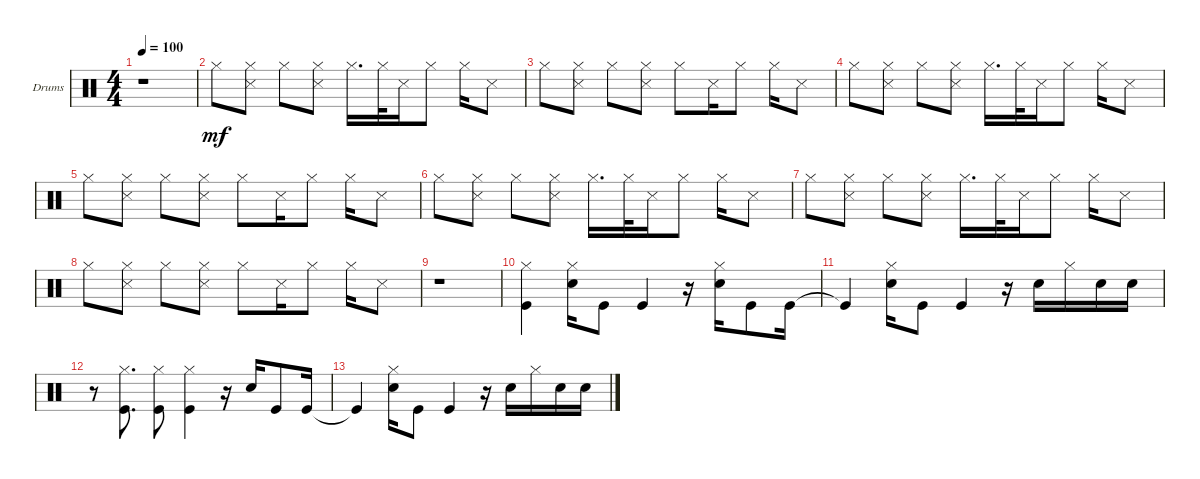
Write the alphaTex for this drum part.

\defaultSystemsLayout 4
\bracketExtendMode groupsimilarinstruments
\firstSystemTrackNameOrientation horizontal
\otherSystemsTrackNameOrientation horizontal
\track ("Drumkit" "Drums") {instrument percussion}
\staff {score}
\articulation defaults
\ts (4 4)
\tempo 100
\clef neutral
\scale
0.526528
\ks c
r.1{dy mf} |
\scale
0.594912 "Hi-Hat (closed)".8 ("Hi-Hat (closed)" "Snare (side stick) 3").8 "Hi-Hat (closed)".8 ("Hi-Hat (closed)" "Snare (side stick) 3").8 "Hi-Hat (closed)".16{d} "Hi-Hat (closed)".32 "Snare (side stick) 3".16 "Hi-Hat (closed)".8 "Hi-Hat (closed)".16 "Snare (side stick) 3".8 |
\scale
0.44884 "Hi-Hat (closed)".8 ("Hi-Hat (closed)" "Snare (side stick) 3").8 "Hi-Hat (closed)".8 ("Hi-Hat (closed)" "Snare (side stick) 3").8 "Hi-Hat (closed)".8 "Snare (side stick) 3".16 "Hi-Hat (closed)".8 "Hi-Hat (closed)".16 "Snare (side stick) 3".8 |
"Hi-Hat (closed)".8 ("Hi-Hat (closed)" "Snare (side stick) 3").8 "Hi-Hat (closed)".8 ("Hi-Hat (closed)" "Snare (side stick) 3").8 "Hi-Hat (closed)".16{d} "Hi-Hat (closed)".32 "Snare (side stick) 3".16 "Hi-Hat (closed)".8 "Hi-Hat (closed)".16 "Snare (side stick) 3".8 |
"Hi-Hat (closed)".8 ("Hi-Hat (closed)" "Snare (side stick) 3").8 "Hi-Hat (closed)".8 ("Hi-Hat (closed)" "Snare (side stick) 3").8 "Hi-Hat (closed)".8 "Snare (side stick) 3".16 "Hi-Hat (closed)".8 "Hi-Hat (closed)".16 "Snare (side stick) 3".8 |
"Hi-Hat (closed)".8 ("Hi-Hat (closed)" "Snare (side stick) 3").8 "Hi-Hat (closed)".8 ("Hi-Hat (closed)" "Snare (side stick) 3").8 "Hi-Hat (closed)".16{d} "Hi-Hat (closed)".32 "Snare (side stick) 3".16 "Hi-Hat (closed)".8 "Hi-Hat (closed)".16 "Snare (side stick) 3".8 |
"Hi-Hat (closed)".8 ("Hi-Hat (closed)" "Snare (side stick) 3").8 "Hi-Hat (closed)".8 ("Hi-Hat (closed)" "Snare (side stick) 3").8 "Hi-Hat (closed)".16{d} "Hi-Hat (closed)".32 "Snare (side stick) 3".16 "Hi-Hat (closed)".8 "Hi-Hat (closed)".16 "Snare (side stick) 3".8 |
"Hi-Hat (closed)".8 ("Hi-Hat (closed)" "Snare (side stick) 3").8 "Hi-Hat (closed)".8 ("Hi-Hat (closed)" "Snare (side stick) 3").8 "Hi-Hat (closed)".8 "Snare (side stick) 3".16 "Hi-Hat (closed)".8 "Hi-Hat (closed)".16 "Snare (side stick) 3".8 |
r.1 |
("Kick (hit)" "Hi-Hat (closed)").4 ("Snare (hit) 2" "Hi-Hat (closed)").16 "Kick (hit)".8 "Kick (hit)".4 r.16 ("Snare (hit) 2" "Hi-Hat (closed)").16 "Kick (hit)".8 "Kick (hit)".16 |
"Kick (hit)"{t}.4 ("Snare (hit) 2" "Hi-Hat (closed)").16 "Kick (hit)".8 "Kick (hit)".4 r.16 "Snare (hit) 2".16 "Hi-Hat (closed)".16 "Snare (hit) 2".16 "Snare (hit) 2".16 |
r.8 ("Kick (hit)" "Hi-Hat (closed)").8{d} ("Kick (hit)" "Hi-Hat (closed)").8 ("Kick (hit)" "Hi-Hat (closed)").4 r.16 "Snare (hit) 2".16 "Kick (hit)".8 "Kick (hit)".16 |
"Kick (hit)"{t}.4 ("Snare (hit) 2" "Hi-Hat (closed)").16 "Kick (hit)".8 "Kick (hit)".4 r.16 "Snare (hit) 2".16 "Hi-Hat (closed)".16 "Snare (hit) 2".16 "Snare (hit) 2".16
